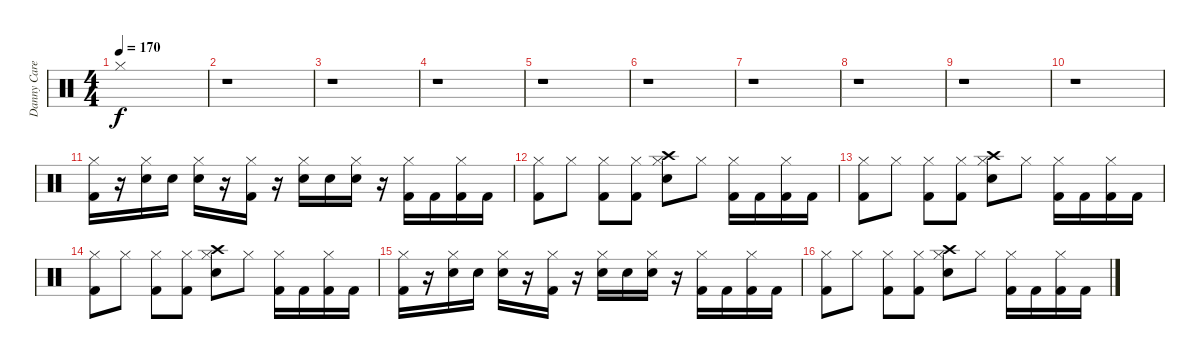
\track ("Danny Carey" "Danny Care") {instrument percussion}
\staff {score}
\articulation defaults
\ts (4 4)
\tempo 170
\clef neutral
\ks c "Hi-Hat (closed)".1{dy f}
|
r.1 |
r.1 |
r.1 |
r.1 |
r.1 |
r.1 |
r.1 |
r.1 |
r.1 |
("Hi-Hat (closed)" "Kick (hit) 2").16 r.16 ("Hi-Hat (closed)" "Snare (hit) 2").16 "Snare (hit) 2".16 ("Hi-Hat (closed)" "Snare (hit) 2").16 r.16 ("Hi-Hat (closed)" "Kick (hit) 2").16 r.16 ("Hi-Hat (closed)" "Snare (hit) 2").16 "Snare (hit) 2".16 ("Hi-Hat (closed)" "Snare (hit) 2").16 r.16 ("Hi-Hat (closed)" "Kick (hit) 2").16 "Kick (hit) 2".16 ("Hi-Hat (closed)" "Kick (hit) 2").16 "Kick (hit) 2".16 |
("Hi-Hat (closed)" "Kick (hit) 2").8 "Hi-Hat (closed)".8 ("Hi-Hat (closed)" "Kick (hit) 2").8 ("Hi-Hat (closed)" "Kick (hit) 2").8 ("Crash high (hit)" "Hi-Hat (closed)" "Snare (hit) 2").8 "Hi-Hat (closed)".8 ("Hi-Hat (closed)" "Kick (hit) 2").16 "Kick (hit) 2".16 ("Hi-Hat (closed)" "Kick (hit) 2").16 "Kick (hit) 2".16 |
("Hi-Hat (closed)" "Kick (hit) 2").8 "Hi-Hat (closed)".8 ("Hi-Hat (closed)" "Kick (hit) 2").8 ("Hi-Hat (closed)" "Kick (hit) 2").8 ("Crash high (hit)" "Hi-Hat (closed)" "Snare (hit) 2").8 "Hi-Hat (closed)".8 ("Hi-Hat (closed)" "Kick (hit) 2").16 "Kick (hit) 2".16 ("Hi-Hat (closed)" "Kick (hit) 2").16 "Kick (hit) 2".16 |
("Hi-Hat (closed)" "Kick (hit) 2").8 "Hi-Hat (closed)".8 ("Hi-Hat (closed)" "Kick (hit) 2").8 ("Hi-Hat (closed)" "Kick (hit) 2").8 ("Crash high (hit)" "Hi-Hat (closed)" "Snare (hit) 2").8 "Hi-Hat (closed)".8 ("Hi-Hat (closed)" "Kick (hit) 2").16 "Kick (hit) 2".16 ("Hi-Hat (closed)" "Kick (hit) 2").16 "Kick (hit) 2".16 |
("Hi-Hat (closed)" "Kick (hit) 2").16 r.16 ("Hi-Hat (closed)" "Snare (hit) 2").16 "Snare (hit) 2".16 ("Hi-Hat (closed)" "Snare (hit) 2").16 r.16 ("Hi-Hat (closed)" "Kick (hit) 2").16 r.16 ("Hi-Hat (closed)" "Snare (hit) 2").16 "Snare (hit) 2".16 ("Hi-Hat (closed)" "Snare (hit) 2").16 r.16 ("Hi-Hat (closed)" "Kick (hit) 2").16 "Kick (hit) 2".16 ("Hi-Hat (closed)" "Kick (hit) 2").16 "Kick (hit) 2".16 |
("Hi-Hat (closed)" "Kick (hit) 2").8 "Hi-Hat (closed)".8 ("Hi-Hat (closed)" "Kick (hit) 2").8 ("Hi-Hat (closed)" "Kick (hit) 2").8 ("Crash high (hit)" "Hi-Hat (closed)" "Snare (hit) 2").8 "Hi-Hat (closed)".8 ("Hi-Hat (closed)" "Kick (hit) 2").16 "Kick (hit) 2".16 ("Hi-Hat (closed)" "Kick (hit) 2").16 "Kick (hit) 2".16
